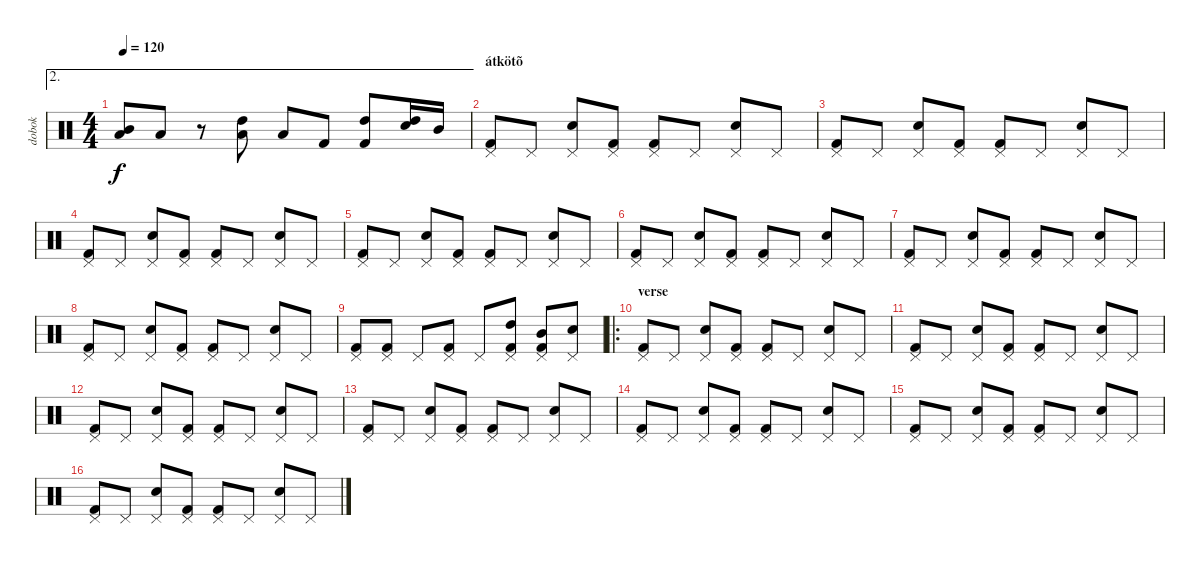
\track ("dobok" "dobok") {instrument percussion}
\staff {score}
\articulation defaults
\ae 2
\ts (4 4)
\tempo 120
\clef neutral
\ks c
("Mid Tom (hit)" "Low Tom (hit)").8{dy f} "Low Tom (hit)".8 r.8 ("High Tom (hit)" "Low Tom (hit)").8 "Low Tom (hit)".8 "Kick (hit) 2".8 ("High Tom (hit)" "Kick (hit) 2").8 ("High Tom (hit)" "Snare (hit) 2").16 "Mid Tom (hit)".16 |
\section ("" "átkötõ")
("Pedal Hi-Hat (hit)" "Kick (hit) 2").8 "Pedal Hi-Hat (hit)".8 ("Pedal Hi-Hat (hit)" "Snare (hit) 2").8 ("Pedal Hi-Hat (hit)" "Kick (hit) 2").8 ("Pedal Hi-Hat (hit)" "Kick (hit) 2").8 "Pedal Hi-Hat (hit)".8 ("Pedal Hi-Hat (hit)" "Snare (hit) 2").8 "Pedal Hi-Hat (hit)".8 |
("Pedal Hi-Hat (hit)" "Kick (hit) 2").8 "Pedal Hi-Hat (hit)".8 ("Pedal Hi-Hat (hit)" "Snare (hit) 2").8 ("Pedal Hi-Hat (hit)" "Kick (hit) 2").8 ("Pedal Hi-Hat (hit)" "Kick (hit) 2").8 "Pedal Hi-Hat (hit)".8 ("Pedal Hi-Hat (hit)" "Snare (hit) 2").8 "Pedal Hi-Hat (hit)".8 |
("Pedal Hi-Hat (hit)" "Kick (hit) 2").8 "Pedal Hi-Hat (hit)".8 ("Pedal Hi-Hat (hit)" "Snare (hit) 2").8 ("Pedal Hi-Hat (hit)" "Kick (hit) 2").8 ("Pedal Hi-Hat (hit)" "Kick (hit) 2").8 "Pedal Hi-Hat (hit)".8 ("Pedal Hi-Hat (hit)" "Snare (hit) 2").8 "Pedal Hi-Hat (hit)".8 |
("Pedal Hi-Hat (hit)" "Kick (hit) 2").8 "Pedal Hi-Hat (hit)".8 ("Pedal Hi-Hat (hit)" "Snare (hit) 2").8 ("Pedal Hi-Hat (hit)" "Kick (hit) 2").8 ("Pedal Hi-Hat (hit)" "Kick (hit) 2").8 "Pedal Hi-Hat (hit)".8 ("Pedal Hi-Hat (hit)" "Snare (hit) 2").8 "Pedal Hi-Hat (hit)".8 |
("Pedal Hi-Hat (hit)" "Kick (hit) 2").8 "Pedal Hi-Hat (hit)".8 ("Pedal Hi-Hat (hit)" "Snare (hit) 2").8 ("Pedal Hi-Hat (hit)" "Kick (hit) 2").8 ("Pedal Hi-Hat (hit)" "Kick (hit) 2").8 "Pedal Hi-Hat (hit)".8 ("Pedal Hi-Hat (hit)" "Snare (hit) 2").8 "Pedal Hi-Hat (hit)".8 |
("Pedal Hi-Hat (hit)" "Kick (hit) 2").8 "Pedal Hi-Hat (hit)".8 ("Pedal Hi-Hat (hit)" "Snare (hit) 2").8 ("Pedal Hi-Hat (hit)" "Kick (hit) 2").8 ("Pedal Hi-Hat (hit)" "Kick (hit) 2").8 "Pedal Hi-Hat (hit)".8 ("Pedal Hi-Hat (hit)" "Snare (hit) 2").8 "Pedal Hi-Hat (hit)".8 |
("Pedal Hi-Hat (hit)" "Kick (hit) 2").8 "Pedal Hi-Hat (hit)".8 ("Pedal Hi-Hat (hit)" "Snare (hit) 2").8 ("Pedal Hi-Hat (hit)" "Kick (hit) 2").8 ("Pedal Hi-Hat (hit)" "Kick (hit) 2").8 "Pedal Hi-Hat (hit)".8 ("Pedal Hi-Hat (hit)" "Snare (hit) 2").8 "Pedal Hi-Hat (hit)".8 |
("Pedal Hi-Hat (hit)" "Kick (hit) 2").8 ("Pedal Hi-Hat (hit)" "Kick (hit) 2").8 "Pedal Hi-Hat (hit)".8 ("Pedal Hi-Hat (hit)" "Kick (hit) 2").8 "Pedal Hi-Hat (hit)".8 ("High Tom (hit)" "Pedal Hi-Hat (hit)" "Kick (hit) 2").8 ("Mid Tom (hit)" "Pedal Hi-Hat (hit)" "Kick (hit) 2").8 ("Pedal Hi-Hat (hit)" "Snare (hit) 2").8 |
\ro
\section ("" "verse")
("Pedal Hi-Hat (hit)" "Kick (hit) 2").8 "Pedal Hi-Hat (hit)".8 ("Pedal Hi-Hat (hit)" "Snare (hit) 2").8 ("Pedal Hi-Hat (hit)" "Kick (hit) 2").8 ("Pedal Hi-Hat (hit)" "Kick (hit) 2").8 "Pedal Hi-Hat (hit)".8 ("Pedal Hi-Hat (hit)" "Snare (hit) 2").8 "Pedal Hi-Hat (hit)".8 |
("Pedal Hi-Hat (hit)" "Kick (hit) 2").8 "Pedal Hi-Hat (hit)".8 ("Pedal Hi-Hat (hit)" "Snare (hit) 2").8 ("Pedal Hi-Hat (hit)" "Kick (hit) 2").8 ("Pedal Hi-Hat (hit)" "Kick (hit) 2").8 "Pedal Hi-Hat (hit)".8 ("Pedal Hi-Hat (hit)" "Snare (hit) 2").8 "Pedal Hi-Hat (hit)".8 |
("Pedal Hi-Hat (hit)" "Kick (hit) 2").8 "Pedal Hi-Hat (hit)".8 ("Pedal Hi-Hat (hit)" "Snare (hit) 2").8 ("Pedal Hi-Hat (hit)" "Kick (hit) 2").8 ("Pedal Hi-Hat (hit)" "Kick (hit) 2").8 "Pedal Hi-Hat (hit)".8 ("Pedal Hi-Hat (hit)" "Snare (hit) 2").8 "Pedal Hi-Hat (hit)".8 |
("Pedal Hi-Hat (hit)" "Kick (hit) 2").8 "Pedal Hi-Hat (hit)".8 ("Pedal Hi-Hat (hit)" "Snare (hit) 2").8 ("Pedal Hi-Hat (hit)" "Kick (hit) 2").8 ("Pedal Hi-Hat (hit)" "Kick (hit) 2").8 "Pedal Hi-Hat (hit)".8 ("Pedal Hi-Hat (hit)" "Snare (hit) 2").8 "Pedal Hi-Hat (hit)".8 |
("Pedal Hi-Hat (hit)" "Kick (hit) 2").8 "Pedal Hi-Hat (hit)".8 ("Pedal Hi-Hat (hit)" "Snare (hit) 2").8 ("Pedal Hi-Hat (hit)" "Kick (hit) 2").8 ("Pedal Hi-Hat (hit)" "Kick (hit) 2").8 "Pedal Hi-Hat (hit)".8 ("Pedal Hi-Hat (hit)" "Snare (hit) 2").8 "Pedal Hi-Hat (hit)".8 |
("Pedal Hi-Hat (hit)" "Kick (hit) 2").8 "Pedal Hi-Hat (hit)".8 ("Pedal Hi-Hat (hit)" "Snare (hit) 2").8 ("Pedal Hi-Hat (hit)" "Kick (hit) 2").8 ("Pedal Hi-Hat (hit)" "Kick (hit) 2").8 "Pedal Hi-Hat (hit)".8 ("Pedal Hi-Hat (hit)" "Snare (hit) 2").8 "Pedal Hi-Hat (hit)".8 |
("Pedal Hi-Hat (hit)" "Kick (hit) 2").8 "Pedal Hi-Hat (hit)".8 ("Pedal Hi-Hat (hit)" "Snare (hit) 2").8 ("Pedal Hi-Hat (hit)" "Kick (hit) 2").8 ("Pedal Hi-Hat (hit)" "Kick (hit) 2").8 "Pedal Hi-Hat (hit)".8 ("Pedal Hi-Hat (hit)" "Snare (hit) 2").8 "Pedal Hi-Hat (hit)".8
